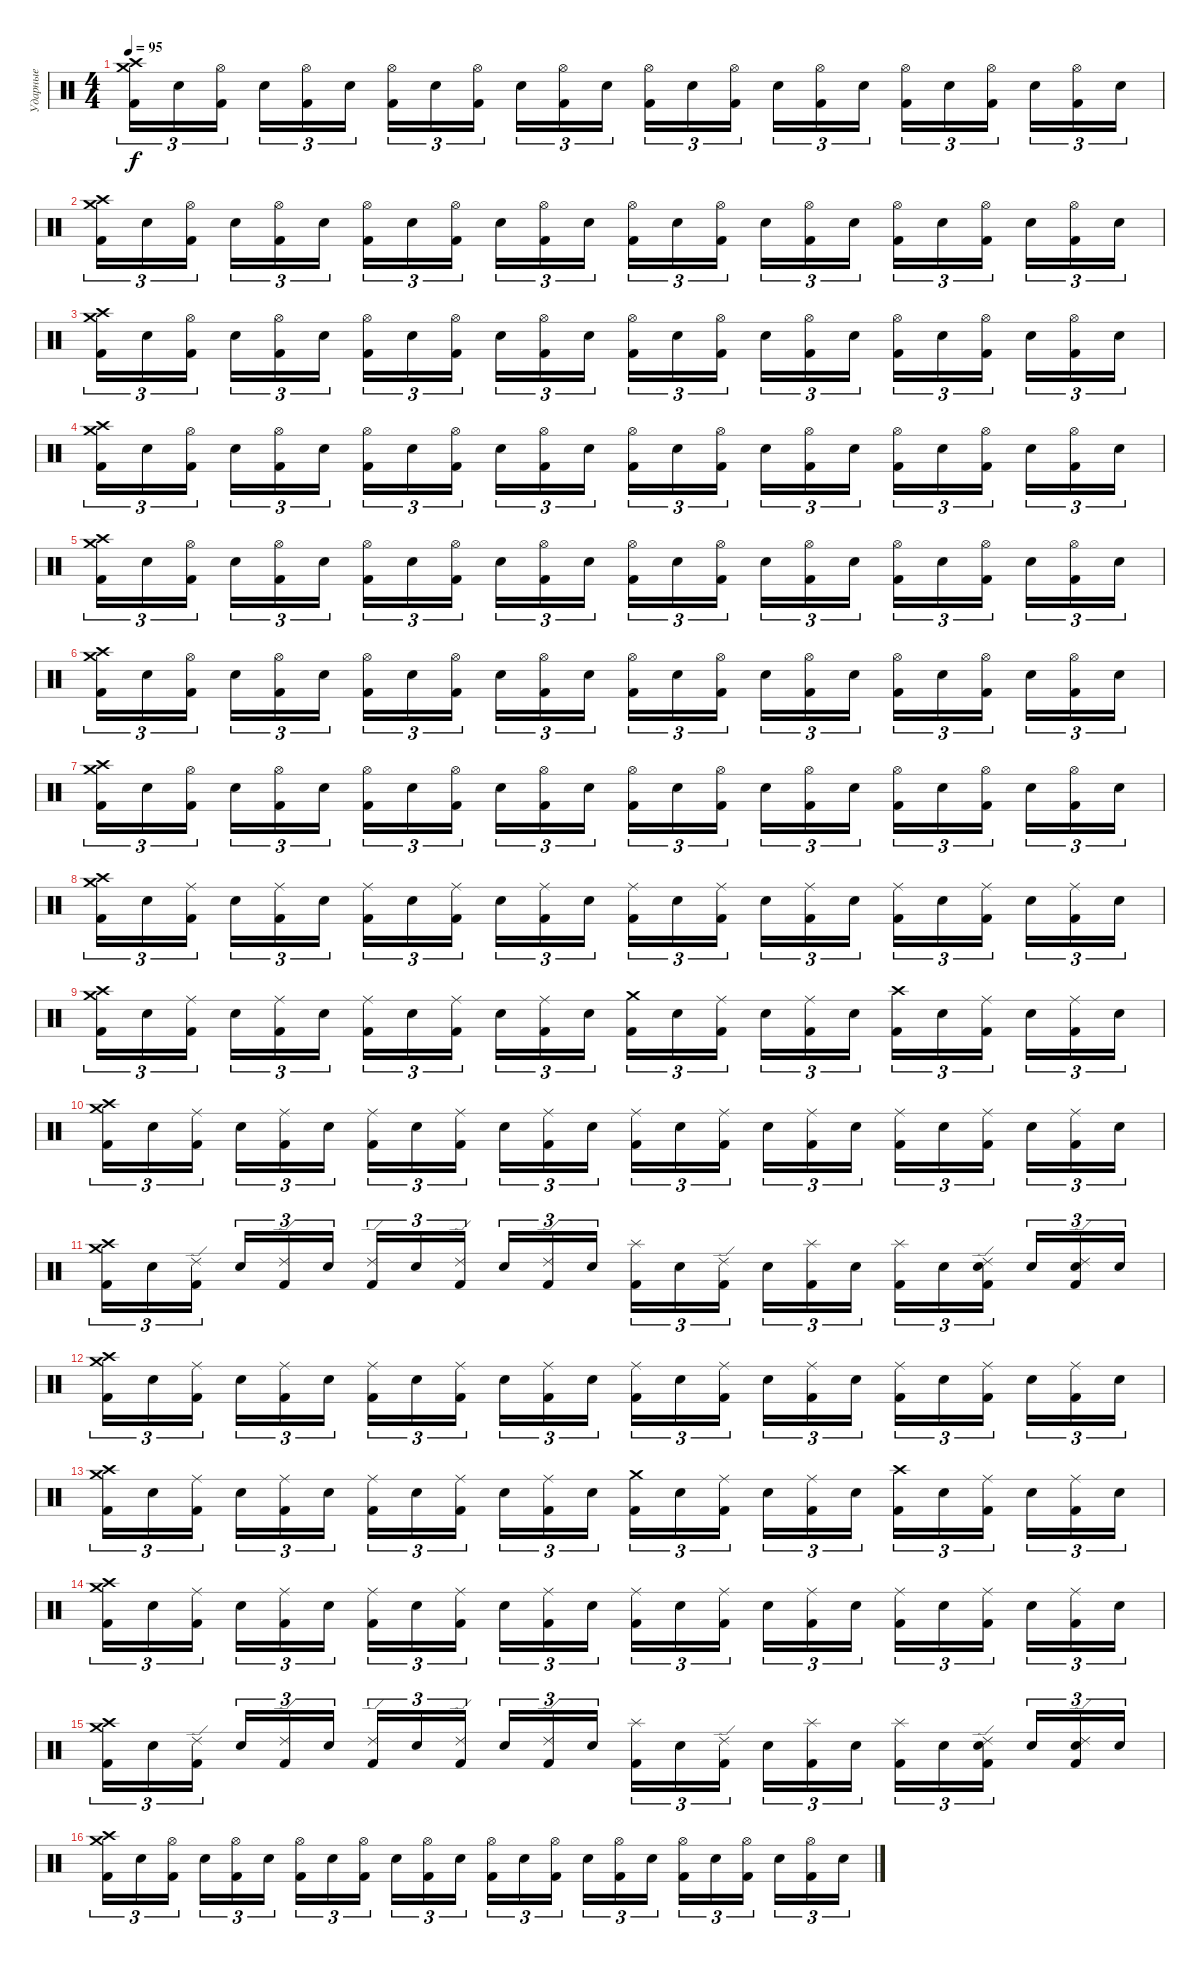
\track ("Ударные" "Ударные") {instrument percussion}
\staff {score}
\articulation defaults
\ts (4 4)
\tempo 95
\clef neutral
\ks c
("Crash medium (hit)" "Crash high (hit)" "Kick (hit) 2").16{tu (3 2) dy f} "Electric Snare (hit)".16{tu (3 2)} ("Hi-Hat (open)" "Kick (hit) 2").16{tu (3 2) beam splitsecondary} "Electric Snare (hit)".16{tu (3 2)} ("Hi-Hat (open)" "Kick (hit) 2").16{tu (3 2)} "Electric Snare (hit)".16{tu (3 2)} ("Hi-Hat (open)" "Kick (hit) 2").16{tu (3 2)} "Electric Snare (hit)".16{tu (3 2)} ("Hi-Hat (open)" "Kick (hit) 2").16{tu (3 2) beam splitsecondary} "Electric Snare (hit)".16{tu (3 2)} ("Hi-Hat (open)" "Kick (hit) 2").16{tu (3 2)} "Electric Snare (hit)".16{tu (3 2)} ("Hi-Hat (open)" "Kick (hit) 2").16{tu (3 2)} "Electric Snare (hit)".16{tu (3 2)} ("Hi-Hat (open)" "Kick (hit) 2").16{tu (3 2) beam splitsecondary} "Electric Snare (hit)".16{tu (3 2)} ("Hi-Hat (open)" "Kick (hit) 2").16{tu (3 2)} "Electric Snare (hit)".16{tu (3 2)} ("Hi-Hat (open)" "Kick (hit) 2").16{tu (3 2)} "Electric Snare (hit)".16{tu (3 2)} ("Hi-Hat (open)" "Kick (hit) 2").16{tu (3 2) beam splitsecondary} "Electric Snare (hit)".16{tu (3 2)} ("Hi-Hat (open)" "Kick (hit) 2").16{tu (3 2)} "Electric Snare (hit)".16{tu (3 2)} |
("Crash medium (hit)" "Crash high (hit)" "Kick (hit) 2").16{tu (3 2)} "Electric Snare (hit)".16{tu (3 2)} ("Hi-Hat (open)" "Kick (hit) 2").16{tu (3 2) beam splitsecondary} "Electric Snare (hit)".16{tu (3 2)} ("Hi-Hat (open)" "Kick (hit) 2").16{tu (3 2)} "Electric Snare (hit)".16{tu (3 2)} ("Hi-Hat (open)" "Kick (hit) 2").16{tu (3 2)} "Electric Snare (hit)".16{tu (3 2)} ("Hi-Hat (open)" "Kick (hit) 2").16{tu (3 2) beam splitsecondary} "Electric Snare (hit)".16{tu (3 2)} ("Hi-Hat (open)" "Kick (hit) 2").16{tu (3 2)} "Electric Snare (hit)".16{tu (3 2)} ("Hi-Hat (open)" "Kick (hit) 2").16{tu (3 2)} "Electric Snare (hit)".16{tu (3 2)} ("Hi-Hat (open)" "Kick (hit) 2").16{tu (3 2) beam splitsecondary} "Electric Snare (hit)".16{tu (3 2)} ("Hi-Hat (open)" "Kick (hit) 2").16{tu (3 2)} "Electric Snare (hit)".16{tu (3 2)} ("Hi-Hat (open)" "Kick (hit) 2").16{tu (3 2)} "Electric Snare (hit)".16{tu (3 2)} ("Hi-Hat (open)" "Kick (hit) 2").16{tu (3 2) beam splitsecondary} "Electric Snare (hit)".16{tu (3 2)} ("Hi-Hat (open)" "Kick (hit) 2").16{tu (3 2)} "Electric Snare (hit)".16{tu (3 2)} |
("Crash medium (hit)" "Crash high (hit)" "Kick (hit) 2").16{tu (3 2)} "Electric Snare (hit)".16{tu (3 2)} ("Hi-Hat (open)" "Kick (hit) 2").16{tu (3 2) beam splitsecondary} "Electric Snare (hit)".16{tu (3 2)} ("Hi-Hat (open)" "Kick (hit) 2").16{tu (3 2)} "Electric Snare (hit)".16{tu (3 2)} ("Hi-Hat (open)" "Kick (hit) 2").16{tu (3 2)} "Electric Snare (hit)".16{tu (3 2)} ("Hi-Hat (open)" "Kick (hit) 2").16{tu (3 2) beam splitsecondary} "Electric Snare (hit)".16{tu (3 2)} ("Hi-Hat (open)" "Kick (hit) 2").16{tu (3 2)} "Electric Snare (hit)".16{tu (3 2)} ("Hi-Hat (open)" "Kick (hit) 2").16{tu (3 2)} "Electric Snare (hit)".16{tu (3 2)} ("Hi-Hat (open)" "Kick (hit) 2").16{tu (3 2) beam splitsecondary} "Electric Snare (hit)".16{tu (3 2)} ("Hi-Hat (open)" "Kick (hit) 2").16{tu (3 2)} "Electric Snare (hit)".16{tu (3 2)} ("Hi-Hat (open)" "Kick (hit) 2").16{tu (3 2)} "Electric Snare (hit)".16{tu (3 2)} ("Hi-Hat (open)" "Kick (hit) 2").16{tu (3 2) beam splitsecondary} "Electric Snare (hit)".16{tu (3 2)} ("Hi-Hat (open)" "Kick (hit) 2").16{tu (3 2)} "Electric Snare (hit)".16{tu (3 2)} |
("Crash medium (hit)" "Crash high (hit)" "Kick (hit) 2").16{tu (3 2)} "Electric Snare (hit)".16{tu (3 2)} ("Hi-Hat (open)" "Kick (hit) 2").16{tu (3 2) beam splitsecondary} "Electric Snare (hit)".16{tu (3 2)} ("Hi-Hat (open)" "Kick (hit) 2").16{tu (3 2)} "Electric Snare (hit)".16{tu (3 2)} ("Hi-Hat (open)" "Kick (hit) 2").16{tu (3 2)} "Electric Snare (hit)".16{tu (3 2)} ("Hi-Hat (open)" "Kick (hit) 2").16{tu (3 2) beam splitsecondary} "Electric Snare (hit)".16{tu (3 2)} ("Hi-Hat (open)" "Kick (hit) 2").16{tu (3 2)} "Electric Snare (hit)".16{tu (3 2)} ("Hi-Hat (open)" "Kick (hit) 2").16{tu (3 2)} "Electric Snare (hit)".16{tu (3 2)} ("Hi-Hat (open)" "Kick (hit) 2").16{tu (3 2) beam splitsecondary} "Electric Snare (hit)".16{tu (3 2)} ("Hi-Hat (open)" "Kick (hit) 2").16{tu (3 2)} "Electric Snare (hit)".16{tu (3 2)} ("Hi-Hat (open)" "Kick (hit) 2").16{tu (3 2)} "Electric Snare (hit)".16{tu (3 2)} ("Hi-Hat (open)" "Kick (hit) 2").16{tu (3 2) beam splitsecondary} "Electric Snare (hit)".16{tu (3 2)} ("Hi-Hat (open)" "Kick (hit) 2").16{tu (3 2)} "Electric Snare (hit)".16{tu (3 2)} |
("Crash medium (hit)" "Crash high (hit)" "Kick (hit) 2").16{tu (3 2)} "Electric Snare (hit)".16{tu (3 2)} ("Hi-Hat (open)" "Kick (hit) 2").16{tu (3 2) beam splitsecondary} "Electric Snare (hit)".16{tu (3 2)} ("Hi-Hat (open)" "Kick (hit) 2").16{tu (3 2)} "Electric Snare (hit)".16{tu (3 2)} ("Hi-Hat (open)" "Kick (hit) 2").16{tu (3 2)} "Electric Snare (hit)".16{tu (3 2)} ("Hi-Hat (open)" "Kick (hit) 2").16{tu (3 2) beam splitsecondary} "Electric Snare (hit)".16{tu (3 2)} ("Hi-Hat (open)" "Kick (hit) 2").16{tu (3 2)} "Electric Snare (hit)".16{tu (3 2)} ("Hi-Hat (open)" "Kick (hit) 2").16{tu (3 2)} "Electric Snare (hit)".16{tu (3 2)} ("Hi-Hat (open)" "Kick (hit) 2").16{tu (3 2) beam splitsecondary} "Electric Snare (hit)".16{tu (3 2)} ("Hi-Hat (open)" "Kick (hit) 2").16{tu (3 2)} "Electric Snare (hit)".16{tu (3 2)} ("Hi-Hat (open)" "Kick (hit) 2").16{tu (3 2)} "Electric Snare (hit)".16{tu (3 2)} ("Hi-Hat (open)" "Kick (hit) 2").16{tu (3 2) beam splitsecondary} "Electric Snare (hit)".16{tu (3 2)} ("Hi-Hat (open)" "Kick (hit) 2").16{tu (3 2)} "Electric Snare (hit)".16{tu (3 2)} |
("Crash medium (hit)" "Crash high (hit)" "Kick (hit) 2").16{tu (3 2)} "Electric Snare (hit)".16{tu (3 2)} ("Hi-Hat (open)" "Kick (hit) 2").16{tu (3 2) beam splitsecondary} "Electric Snare (hit)".16{tu (3 2)} ("Hi-Hat (open)" "Kick (hit) 2").16{tu (3 2)} "Electric Snare (hit)".16{tu (3 2)} ("Hi-Hat (open)" "Kick (hit) 2").16{tu (3 2)} "Electric Snare (hit)".16{tu (3 2)} ("Hi-Hat (open)" "Kick (hit) 2").16{tu (3 2) beam splitsecondary} "Electric Snare (hit)".16{tu (3 2)} ("Hi-Hat (open)" "Kick (hit) 2").16{tu (3 2)} "Electric Snare (hit)".16{tu (3 2)} ("Hi-Hat (open)" "Kick (hit) 2").16{tu (3 2)} "Electric Snare (hit)".16{tu (3 2)} ("Hi-Hat (open)" "Kick (hit) 2").16{tu (3 2) beam splitsecondary} "Electric Snare (hit)".16{tu (3 2)} ("Hi-Hat (open)" "Kick (hit) 2").16{tu (3 2)} "Electric Snare (hit)".16{tu (3 2)} ("Hi-Hat (open)" "Kick (hit) 2").16{tu (3 2)} "Electric Snare (hit)".16{tu (3 2)} ("Hi-Hat (open)" "Kick (hit) 2").16{tu (3 2) beam splitsecondary} "Electric Snare (hit)".16{tu (3 2)} ("Hi-Hat (open)" "Kick (hit) 2").16{tu (3 2)} "Electric Snare (hit)".16{tu (3 2)} |
("Crash medium (hit)" "Crash high (hit)" "Kick (hit) 2").16{tu (3 2)} "Electric Snare (hit)".16{tu (3 2)} ("Hi-Hat (open)" "Kick (hit) 2").16{tu (3 2) beam splitsecondary} "Electric Snare (hit)".16{tu (3 2)} ("Hi-Hat (open)" "Kick (hit) 2").16{tu (3 2)} "Electric Snare (hit)".16{tu (3 2)} ("Hi-Hat (open)" "Kick (hit) 2").16{tu (3 2)} "Electric Snare (hit)".16{tu (3 2)} ("Hi-Hat (open)" "Kick (hit) 2").16{tu (3 2) beam splitsecondary} "Electric Snare (hit)".16{tu (3 2)} ("Hi-Hat (open)" "Kick (hit) 2").16{tu (3 2)} "Electric Snare (hit)".16{tu (3 2)} ("Hi-Hat (open)" "Kick (hit) 2").16{tu (3 2)} "Electric Snare (hit)".16{tu (3 2)} ("Hi-Hat (open)" "Kick (hit) 2").16{tu (3 2) beam splitsecondary} "Electric Snare (hit)".16{tu (3 2)} ("Hi-Hat (open)" "Kick (hit) 2").16{tu (3 2)} "Electric Snare (hit)".16{tu (3 2)} ("Hi-Hat (open)" "Kick (hit) 2").16{tu (3 2)} "Electric Snare (hit)".16{tu (3 2)} ("Hi-Hat (open)" "Kick (hit) 2").16{tu (3 2) beam splitsecondary} "Electric Snare (hit)".16{tu (3 2)} ("Hi-Hat (open)" "Kick (hit) 2").16{tu (3 2)} "Electric Snare (hit)".16{tu (3 2)} |
("Crash medium (hit)" "Crash high (hit)" "Kick (hit) 2").16{tu (3 2)} "Electric Snare (hit)".16{tu (3 2)} ("Ride (middle)" "Kick (hit) 2").16{tu (3 2) beam splitsecondary} "Electric Snare (hit)".16{tu (3 2)} ("Ride (middle)" "Kick (hit) 2").16{tu (3 2)} "Electric Snare (hit)".16{tu (3 2)} ("Ride (middle)" "Kick (hit) 2").16{tu (3 2)} "Electric Snare (hit)".16{tu (3 2)} ("Ride (middle)" "Kick (hit) 2").16{tu (3 2) beam splitsecondary} "Electric Snare (hit)".16{tu (3 2)} ("Ride (middle)" "Kick (hit) 2").16{tu (3 2)} "Electric Snare (hit)".16{tu (3 2)} ("Ride (middle)" "Kick (hit) 2").16{tu (3 2)} "Electric Snare (hit)".16{tu (3 2)} ("Ride (middle)" "Kick (hit) 2").16{tu (3 2) beam splitsecondary} "Electric Snare (hit)".16{tu (3 2)} ("Ride (middle)" "Kick (hit) 2").16{tu (3 2)} "Electric Snare (hit)".16{tu (3 2)} ("Ride (middle)" "Kick (hit) 2").16{tu (3 2)} "Electric Snare (hit)".16{tu (3 2)} ("Ride (middle)" "Kick (hit) 2").16{tu (3 2) beam splitsecondary} "Electric Snare (hit)".16{tu (3 2)} ("Ride (middle)" "Kick (hit) 2").16{tu (3 2)} "Electric Snare (hit)".16{tu (3 2)} |
("Crash medium (hit)" "Crash high (hit)" "Kick (hit) 2").16{tu (3 2)} "Electric Snare (hit)".16{tu (3 2)} ("Ride (middle)" "Kick (hit) 2").16{tu (3 2) beam splitsecondary} "Electric Snare (hit)".16{tu (3 2)} ("Ride (middle)" "Kick (hit) 2").16{tu (3 2)} "Electric Snare (hit)".16{tu (3 2)} ("Ride (middle)" "Kick (hit) 2").16{tu (3 2)} "Electric Snare (hit)".16{tu (3 2)} ("Ride (middle)" "Kick (hit) 2").16{tu (3 2) beam splitsecondary} "Electric Snare (hit)".16{tu (3 2)} ("Ride (middle)" "Kick (hit) 2").16{tu (3 2)} "Electric Snare (hit)".16{tu (3 2)} ("Crash medium (hit)" "Kick (hit) 2").16{tu (3 2)} "Electric Snare (hit)".16{tu (3 2)} ("Ride (middle)" "Kick (hit) 2").16{tu (3 2) beam splitsecondary} "Electric Snare (hit)".16{tu (3 2)} ("Ride (middle)" "Kick (hit) 2").16{tu (3 2)} "Electric Snare (hit)".16{tu (3 2)} ("Crash high (hit)" "Kick (hit) 2").16{tu (3 2)} "Electric Snare (hit)".16{tu (3 2)} ("Ride (middle)" "Kick (hit) 2").16{tu (3 2) beam splitsecondary} "Electric Snare (hit)".16{tu (3 2)} ("Ride (middle)" "Kick (hit) 2").16{tu (3 2)} "Electric Snare (hit)".16{tu (3 2)} |
("Crash medium (hit)" "Crash high (hit)" "Kick (hit) 2").16{tu (3 2)} "Electric Snare (hit)".16{tu (3 2)} ("Ride (middle)" "Kick (hit) 2").16{tu (3 2) beam splitsecondary} "Electric Snare (hit)".16{tu (3 2)} ("Ride (middle)" "Kick (hit) 2").16{tu (3 2)} "Electric Snare (hit)".16{tu (3 2)} ("Ride (middle)" "Kick (hit) 2").16{tu (3 2)} "Electric Snare (hit)".16{tu (3 2)} ("Ride (middle)" "Kick (hit) 2").16{tu (3 2) beam splitsecondary} "Electric Snare (hit)".16{tu (3 2)} ("Ride (middle)" "Kick (hit) 2").16{tu (3 2)} "Electric Snare (hit)".16{tu (3 2)} ("Ride (middle)" "Kick (hit) 2").16{tu (3 2)} "Electric Snare (hit)".16{tu (3 2)} ("Ride (middle)" "Kick (hit) 2").16{tu (3 2) beam splitsecondary} "Electric Snare (hit)".16{tu (3 2)} ("Ride (middle)" "Kick (hit) 2").16{tu (3 2)} "Electric Snare (hit)".16{tu (3 2)} ("Ride (middle)" "Kick (hit) 2").16{tu (3 2)} "Electric Snare (hit)".16{tu (3 2)} ("Ride (middle)" "Kick (hit) 2").16{tu (3 2) beam splitsecondary} "Electric Snare (hit)".16{tu (3 2)} ("Ride (middle)" "Kick (hit) 2").16{tu (3 2)} "Electric Snare (hit)".16{tu (3 2)} |
("Crash medium (hit)" "Crash high (hit)" "Kick (hit) 2").16{tu (3 2)} "Electric Snare (hit)".16{tu (3 2)} ("Ride (edge) 2" "Kick (hit) 2").16{tu (3 2) beam splitsecondary} "Electric Snare (hit)".16{tu (3 2)} ("Ride (edge) 2" "Kick (hit) 2").16{tu (3 2)} "Electric Snare (hit)".16{tu (3 2)} ("Ride (edge) 2" "Kick (hit) 2").16{tu (3 2)} "Electric Snare (hit)".16{tu (3 2)} ("Ride (edge) 2" "Kick (hit) 2").16{tu (3 2) beam splitsecondary} "Electric Snare (hit)".16{tu (3 2)} ("Ride (edge) 2" "Kick (hit) 2").16{tu (3 2)} "Electric Snare (hit)".16{tu (3 2)} ("Splash (hit)" "Kick (hit) 2").16{tu (3 2)} "Electric Snare (hit)".16{tu (3 2)} ("Ride (edge) 2" "Kick (hit) 2").16{tu (3 2) beam splitsecondary} "Electric Snare (hit)".16{tu (3 2)} ("Splash (hit)" "Kick (hit) 2").16{tu (3 2)} "Electric Snare (hit)".16{tu (3 2)} ("Splash (hit)" "Kick (hit) 2").16{tu (3 2)} "Electric Snare (hit)".16{tu (3 2)} ("Ride (edge) 2" "Electric Snare (hit)" "Kick (hit) 2").16{tu (3 2) beam splitsecondary} "Electric Snare (hit)".16{tu (3 2)} ("Ride (edge) 2" "Electric Snare (hit)" "Kick (hit) 2").16{tu (3 2)} "Electric Snare (hit)".16{tu (3 2)} |
("Crash medium (hit)" "Crash high (hit)" "Kick (hit) 2").16{tu (3 2)} "Electric Snare (hit)".16{tu (3 2)} ("Ride (middle)" "Kick (hit) 2").16{tu (3 2) beam splitsecondary} "Electric Snare (hit)".16{tu (3 2)} ("Ride (middle)" "Kick (hit) 2").16{tu (3 2)} "Electric Snare (hit)".16{tu (3 2)} ("Ride (middle)" "Kick (hit) 2").16{tu (3 2)} "Electric Snare (hit)".16{tu (3 2)} ("Ride (middle)" "Kick (hit) 2").16{tu (3 2) beam splitsecondary} "Electric Snare (hit)".16{tu (3 2)} ("Ride (middle)" "Kick (hit) 2").16{tu (3 2)} "Electric Snare (hit)".16{tu (3 2)} ("Ride (middle)" "Kick (hit) 2").16{tu (3 2)} "Electric Snare (hit)".16{tu (3 2)} ("Ride (middle)" "Kick (hit) 2").16{tu (3 2) beam splitsecondary} "Electric Snare (hit)".16{tu (3 2)} ("Ride (middle)" "Kick (hit) 2").16{tu (3 2)} "Electric Snare (hit)".16{tu (3 2)} ("Ride (middle)" "Kick (hit) 2").16{tu (3 2)} "Electric Snare (hit)".16{tu (3 2)} ("Ride (middle)" "Kick (hit) 2").16{tu (3 2) beam splitsecondary} "Electric Snare (hit)".16{tu (3 2)} ("Ride (middle)" "Kick (hit) 2").16{tu (3 2)} "Electric Snare (hit)".16{tu (3 2)} |
("Crash medium (hit)" "Crash high (hit)" "Kick (hit) 2").16{tu (3 2)} "Electric Snare (hit)".16{tu (3 2)} ("Ride (middle)" "Kick (hit) 2").16{tu (3 2) beam splitsecondary} "Electric Snare (hit)".16{tu (3 2)} ("Ride (middle)" "Kick (hit) 2").16{tu (3 2)} "Electric Snare (hit)".16{tu (3 2)} ("Ride (middle)" "Kick (hit) 2").16{tu (3 2)} "Electric Snare (hit)".16{tu (3 2)} ("Ride (middle)" "Kick (hit) 2").16{tu (3 2) beam splitsecondary} "Electric Snare (hit)".16{tu (3 2)} ("Ride (middle)" "Kick (hit) 2").16{tu (3 2)} "Electric Snare (hit)".16{tu (3 2)} ("Crash medium (hit)" "Kick (hit) 2").16{tu (3 2)} "Electric Snare (hit)".16{tu (3 2)} ("Ride (middle)" "Kick (hit) 2").16{tu (3 2) beam splitsecondary} "Electric Snare (hit)".16{tu (3 2)} ("Ride (middle)" "Kick (hit) 2").16{tu (3 2)} "Electric Snare (hit)".16{tu (3 2)} ("Crash high (hit)" "Kick (hit) 2").16{tu (3 2)} "Electric Snare (hit)".16{tu (3 2)} ("Ride (middle)" "Kick (hit) 2").16{tu (3 2) beam splitsecondary} "Electric Snare (hit)".16{tu (3 2)} ("Ride (middle)" "Kick (hit) 2").16{tu (3 2)} "Electric Snare (hit)".16{tu (3 2)} |
("Crash medium (hit)" "Crash high (hit)" "Kick (hit) 2").16{tu (3 2)} "Electric Snare (hit)".16{tu (3 2)} ("Ride (middle)" "Kick (hit) 2").16{tu (3 2) beam splitsecondary} "Electric Snare (hit)".16{tu (3 2)} ("Ride (middle)" "Kick (hit) 2").16{tu (3 2)} "Electric Snare (hit)".16{tu (3 2)} ("Ride (middle)" "Kick (hit) 2").16{tu (3 2)} "Electric Snare (hit)".16{tu (3 2)} ("Ride (middle)" "Kick (hit) 2").16{tu (3 2) beam splitsecondary} "Electric Snare (hit)".16{tu (3 2)} ("Ride (middle)" "Kick (hit) 2").16{tu (3 2)} "Electric Snare (hit)".16{tu (3 2)} ("Ride (middle)" "Kick (hit) 2").16{tu (3 2)} "Electric Snare (hit)".16{tu (3 2)} ("Ride (middle)" "Kick (hit) 2").16{tu (3 2) beam splitsecondary} "Electric Snare (hit)".16{tu (3 2)} ("Ride (middle)" "Kick (hit) 2").16{tu (3 2)} "Electric Snare (hit)".16{tu (3 2)} ("Ride (middle)" "Kick (hit) 2").16{tu (3 2)} "Electric Snare (hit)".16{tu (3 2)} ("Ride (middle)" "Kick (hit) 2").16{tu (3 2) beam splitsecondary} "Electric Snare (hit)".16{tu (3 2)} ("Ride (middle)" "Kick (hit) 2").16{tu (3 2)} "Electric Snare (hit)".16{tu (3 2)} |
("Crash medium (hit)" "Crash high (hit)" "Kick (hit) 2").16{tu (3 2)} "Electric Snare (hit)".16{tu (3 2)} ("Ride (edge) 2" "Kick (hit) 2").16{tu (3 2) beam splitsecondary} "Electric Snare (hit)".16{tu (3 2)} ("Ride (edge) 2" "Kick (hit) 2").16{tu (3 2)} "Electric Snare (hit)".16{tu (3 2)} ("Ride (edge) 2" "Kick (hit) 2").16{tu (3 2)} "Electric Snare (hit)".16{tu (3 2)} ("Ride (edge) 2" "Kick (hit) 2").16{tu (3 2) beam splitsecondary} "Electric Snare (hit)".16{tu (3 2)} ("Ride (edge) 2" "Kick (hit) 2").16{tu (3 2)} "Electric Snare (hit)".16{tu (3 2)} ("Splash (hit)" "Kick (hit) 2").16{tu (3 2)} "Electric Snare (hit)".16{tu (3 2)} ("Ride (edge) 2" "Kick (hit) 2").16{tu (3 2) beam splitsecondary} "Electric Snare (hit)".16{tu (3 2)} ("Splash (hit)" "Kick (hit) 2").16{tu (3 2)} "Electric Snare (hit)".16{tu (3 2)} ("Splash (hit)" "Kick (hit) 2").16{tu (3 2)} "Electric Snare (hit)".16{tu (3 2)} ("Ride (edge) 2" "Electric Snare (hit)" "Kick (hit) 2").16{tu (3 2) beam splitsecondary} "Electric Snare (hit)".16{tu (3 2)} ("Ride (edge) 2" "Electric Snare (hit)" "Kick (hit) 2").16{tu (3 2)} "Electric Snare (hit)".16{tu (3 2)} |
("Crash medium (hit)" "Crash high (hit)" "Kick (hit) 2").16{tu (3 2)} "Electric Snare (hit)".16{tu (3 2)} ("Hi-Hat (open)" "Kick (hit) 2").16{tu (3 2) beam splitsecondary} "Electric Snare (hit)".16{tu (3 2)} ("Hi-Hat (open)" "Kick (hit) 2").16{tu (3 2)} "Electric Snare (hit)".16{tu (3 2)} ("Hi-Hat (open)" "Kick (hit) 2").16{tu (3 2)} "Electric Snare (hit)".16{tu (3 2)} ("Hi-Hat (open)" "Kick (hit) 2").16{tu (3 2) beam splitsecondary} "Electric Snare (hit)".16{tu (3 2)} ("Hi-Hat (open)" "Kick (hit) 2").16{tu (3 2)} "Electric Snare (hit)".16{tu (3 2)} ("Hi-Hat (open)" "Kick (hit) 2").16{tu (3 2)} "Electric Snare (hit)".16{tu (3 2)} ("Hi-Hat (open)" "Kick (hit) 2").16{tu (3 2) beam splitsecondary} "Electric Snare (hit)".16{tu (3 2)} ("Hi-Hat (open)" "Kick (hit) 2").16{tu (3 2)} "Electric Snare (hit)".16{tu (3 2)} ("Hi-Hat (open)" "Kick (hit) 2").16{tu (3 2)} "Electric Snare (hit)".16{tu (3 2)} ("Hi-Hat (open)" "Kick (hit) 2").16{tu (3 2) beam splitsecondary} "Electric Snare (hit)".16{tu (3 2)} ("Hi-Hat (open)" "Kick (hit) 2").16{tu (3 2)} "Electric Snare (hit)".16{tu (3 2)}
